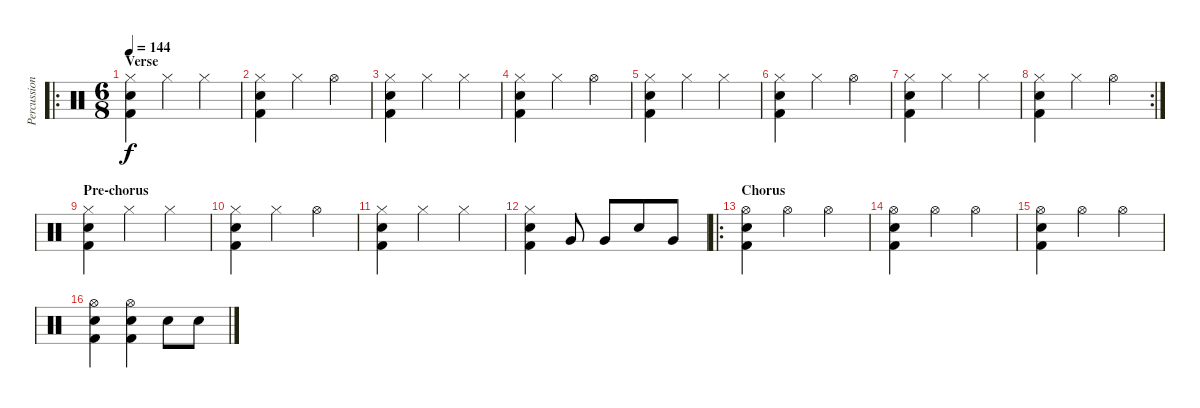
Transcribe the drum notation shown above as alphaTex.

\track ("Percussion" "Percussion") {instrument percussion}
\staff {score}
\articulation defaults
\ro
\ts (6 8)
\section ("" "Verse")
\tempo 144
\clef neutral
\ks c
("Hi-Hat (closed)" "Electric Snare (hit)" "Kick (hit) 2").4{dy f} "Hi-Hat (closed)".4 "Hi-Hat (closed)".4 |
("Hi-Hat (closed)" "Electric Snare (hit)" "Kick (hit) 2").4 "Hi-Hat (closed)".4 "Hi-Hat (open)".4 |
("Hi-Hat (closed)" "Electric Snare (hit)" "Kick (hit) 2").4 "Hi-Hat (closed)".4 "Hi-Hat (closed)".4 |
("Hi-Hat (closed)" "Electric Snare (hit)" "Kick (hit) 2").4 "Hi-Hat (closed)".4 "Hi-Hat (open)".4 |
("Hi-Hat (closed)" "Electric Snare (hit)" "Kick (hit) 2").4 "Hi-Hat (closed)".4 "Hi-Hat (closed)".4 |
("Hi-Hat (closed)" "Electric Snare (hit)" "Kick (hit) 2").4 "Hi-Hat (closed)".4 "Hi-Hat (open)".4 |
("Hi-Hat (closed)" "Electric Snare (hit)" "Kick (hit) 2").4 "Hi-Hat (closed)".4 "Hi-Hat (closed)".4 |
\rc 2
("Hi-Hat (closed)" "Electric Snare (hit)" "Kick (hit) 2").4 "Hi-Hat (closed)".4 "Hi-Hat (open)".4 |
\section ("" "Pre-chorus")
("Hi-Hat (closed)" "Electric Snare (hit)" "Kick (hit) 2").4 "Hi-Hat (closed)".4 "Hi-Hat (closed)".4 |
("Hi-Hat (closed)" "Electric Snare (hit)" "Kick (hit) 2").4 "Hi-Hat (closed)".4 "Hi-Hat (open)".4 |
("Hi-Hat (closed)" "Electric Snare (hit)" "Kick (hit) 2").4 "Hi-Hat (closed)".4 "Hi-Hat (closed)".4 |
("Hi-Hat (closed)" "Electric Snare (hit)" "Kick (hit) 2").4 "Very Low Tom (hit)".8 "Very Low Tom (hit)".8 "Electric Snare (hit)".8 "Very Low Tom (hit)".8 |
\ro
\section ("" "Chorus")
("Hi-Hat (open)" "Electric Snare (hit)" "Kick (hit) 2").4 "Hi-Hat (open)".4 "Hi-Hat (open)".4 |
("Hi-Hat (open)" "Electric Snare (hit)" "Kick (hit) 2").4 "Hi-Hat (open)".4 "Hi-Hat (open)".4 |
("Hi-Hat (open)" "Electric Snare (hit)" "Kick (hit) 2").4 "Hi-Hat (open)".4 "Hi-Hat (open)".4 |
("Hi-Hat (open)" "Electric Snare (hit)" "Kick (hit) 2").4 ("Hi-Hat (open)" "Electric Snare (hit)" "Kick (hit) 2").4 "Electric Snare (hit)".8 "Electric Snare (hit)".8
